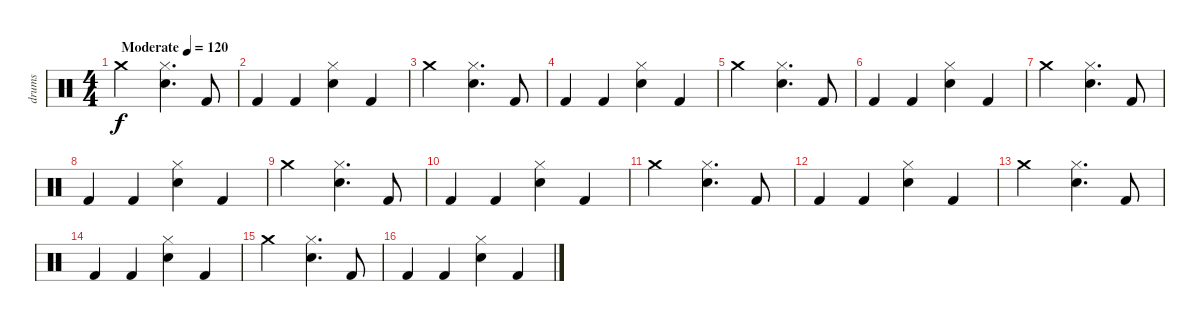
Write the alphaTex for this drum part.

\track ("drums" "drums") {instrument percussion}
\staff {score}
\articulation defaults
\ts (4 4)
\tempo (120 "Moderate")
\clef neutral
\ks c "Crash medium (hit)".2{dy f}
("Snare (hit) 2" "Hi-Hat (closed)").4{d} "Kick (hit) 2".8 |
"Kick (hit) 2".4 "Kick (hit) 2".4 ("Snare (hit) 2" "Hi-Hat (closed)").4 "Kick (hit) 2".4 |
"Crash medium (hit)".2 ("Snare (hit) 2" "Hi-Hat (closed)").4{d} "Kick (hit) 2".8 |
"Kick (hit) 2".4 "Kick (hit) 2".4 ("Snare (hit) 2" "Hi-Hat (closed)").4 "Kick (hit) 2".4 |
"Crash medium (hit)".2 ("Snare (hit) 2" "Hi-Hat (closed)").4{d} "Kick (hit) 2".8 |
"Kick (hit) 2".4 "Kick (hit) 2".4 ("Snare (hit) 2" "Hi-Hat (closed)").4 "Kick (hit) 2".4 |
"Crash medium (hit)".2 ("Snare (hit) 2" "Hi-Hat (closed)").4{d} "Kick (hit) 2".8 |
"Kick (hit) 2".4 "Kick (hit) 2".4 ("Snare (hit) 2" "Hi-Hat (closed)").4 "Kick (hit) 2".4 |
"Crash medium (hit)".2 ("Snare (hit) 2" "Hi-Hat (closed)").4{d} "Kick (hit) 2".8 |
"Kick (hit) 2".4 "Kick (hit) 2".4 ("Snare (hit) 2" "Hi-Hat (closed)").4 "Kick (hit) 2".4 |
"Crash medium (hit)".2 ("Snare (hit) 2" "Hi-Hat (closed)").4{d} "Kick (hit) 2".8 |
"Kick (hit) 2".4 "Kick (hit) 2".4 ("Snare (hit) 2" "Hi-Hat (closed)").4 "Kick (hit) 2".4 |
"Crash medium (hit)".2 ("Snare (hit) 2" "Hi-Hat (closed)").4{d} "Kick (hit) 2".8 |
"Kick (hit) 2".4 "Kick (hit) 2".4 ("Snare (hit) 2" "Hi-Hat (closed)").4 "Kick (hit) 2".4 |
"Crash medium (hit)".2 ("Snare (hit) 2" "Hi-Hat (closed)").4{d} "Kick (hit) 2".8 |
"Kick (hit) 2".4 "Kick (hit) 2".4 ("Snare (hit) 2" "Hi-Hat (closed)").4 "Kick (hit) 2".4
